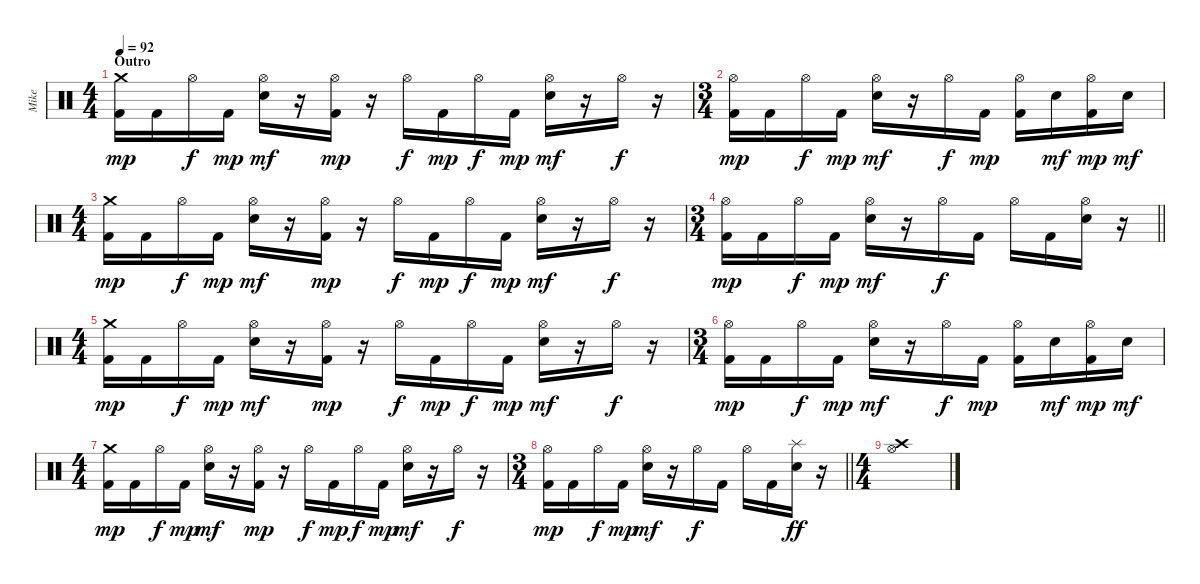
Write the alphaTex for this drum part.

\track ("Mike" "Mike") {instrument percussion}
\staff {score}
\articulation defaults
\ts (4 4)
\section ("" "Outro")
\tempo 92
\clef neutral
\ks c
("Crash medium (hit)" "Kick (hit) 2").16{dy mp} "Kick (hit) 2".16 "Hi-Hat (open)".16{dy f} "Kick (hit) 2".16{dy mp} ("Hi-Hat (open)" "Snare (hit) 2").16{dy mf} r.16 ("Hi-Hat (open)" "Kick (hit) 2").16{dy mp} r.16 "Hi-Hat (open)".16{dy f} "Kick (hit) 2".16{dy mp} "Hi-Hat (open)".16{dy f} "Kick (hit) 2".16{dy mp} ("Hi-Hat (open)" "Snare (hit) 2").16{dy mf} r.16 "Hi-Hat (open)".16{dy f} r.16 |
\ts (3 4)
("Hi-Hat (open)" "Kick (hit) 2").16{dy mp} "Kick (hit) 2".16 "Hi-Hat (open)".16{dy f} "Kick (hit) 2".16{dy mp} ("Hi-Hat (open)" "Snare (hit) 2").16{dy mf} r.16 "Hi-Hat (open)".16{dy f} "Kick (hit) 2".16{dy mp} ("Hi-Hat (open)" "Kick (hit) 2").16 "Snare (hit) 2".16{dy mf} ("Hi-Hat (open)" "Kick (hit) 2").16{dy mp} "Snare (hit) 2".16{dy mf} |
\ts (4 4)
("Crash medium (hit)" "Kick (hit) 2").16{dy mp} "Kick (hit) 2".16 "Hi-Hat (open)".16{dy f} "Kick (hit) 2".16{dy mp} ("Hi-Hat (open)" "Snare (hit) 2").16{dy mf} r.16 ("Hi-Hat (open)" "Kick (hit) 2").16{dy mp} r.16 "Hi-Hat (open)".16{dy f} "Kick (hit) 2".16{dy mp} "Hi-Hat (open)".16{dy f} "Kick (hit) 2".16{dy mp} ("Hi-Hat (open)" "Snare (hit) 2").16{dy mf} r.16 "Hi-Hat (open)".16{dy f} r.16 |
\ts (3 4)
\barLineRight lightlight
("Hi-Hat (open)" "Kick (hit) 2").16{dy mp} "Kick (hit) 2".16 "Hi-Hat (open)".16{dy f} "Kick (hit) 2".16{dy mp} ("Hi-Hat (open)" "Snare (hit) 2").16{dy mf} r.16 "Hi-Hat (open)".16{dy f} "Kick (hit) 2".16 "Hi-Hat (open)".16 "Kick (hit) 2".16 ("Hi-Hat (open)" "Snare (hit) 2").16 r.16 |
\ts (4 4)
("Crash medium (hit)" "Kick (hit) 2").16{dy mp} "Kick (hit) 2".16 "Hi-Hat (open)".16{dy f} "Kick (hit) 2".16{dy mp} ("Hi-Hat (open)" "Snare (hit) 2").16{dy mf} r.16 ("Hi-Hat (open)" "Kick (hit) 2").16{dy mp} r.16 "Hi-Hat (open)".16{dy f} "Kick (hit) 2".16{dy mp} "Hi-Hat (open)".16{dy f} "Kick (hit) 2".16{dy mp} ("Hi-Hat (open)" "Snare (hit) 2").16{dy mf} r.16 "Hi-Hat (open)".16{dy f} r.16 |
\ts (3 4)
("Hi-Hat (open)" "Kick (hit) 2").16{dy mp} "Kick (hit) 2".16 "Hi-Hat (open)".16{dy f} "Kick (hit) 2".16{dy mp} ("Hi-Hat (open)" "Snare (hit) 2").16{dy mf} r.16 "Hi-Hat (open)".16{dy f} "Kick (hit) 2".16{dy mp} ("Hi-Hat (open)" "Kick (hit) 2").16 "Snare (hit) 2".16{dy mf} ("Hi-Hat (open)" "Kick (hit) 2").16{dy mp} "Snare (hit) 2".16{dy mf} |
\ts (4 4)
("Crash medium (hit)" "Kick (hit) 2").16{dy mp} "Kick (hit) 2".16 "Hi-Hat (open)".16{dy f} "Kick (hit) 2".16{dy mp} ("Hi-Hat (open)" "Snare (hit) 2").16{dy mf} r.16 ("Hi-Hat (open)" "Kick (hit) 2").16{dy mp} r.16 "Hi-Hat (open)".16{dy f} "Kick (hit) 2".16{dy mp} "Hi-Hat (open)".16{dy f} "Kick (hit) 2".16{dy mp} ("Hi-Hat (open)" "Snare (hit) 2").16{dy mf} r.16 "Hi-Hat (open)".16{dy f} r.16 |
\ts (3 4)
\barLineRight lightlight
("Hi-Hat (open)" "Kick (hit) 2").16{dy mp} "Kick (hit) 2".16 "Hi-Hat (open)".16{dy f} "Kick (hit) 2".16{dy mp} ("Hi-Hat (open)" "Snare (hit) 2").16{dy mf} r.16 "Hi-Hat (open)".16{dy f} "Kick (hit) 2".16 "Hi-Hat (open)".16 "Kick (hit) 2".16 ("Splash (hit)" "Snare (hit) 2").16{dy ff} r.16 |
\ts (4 4)
("Hi-Hat (open)" "Crash high (hit)").1
